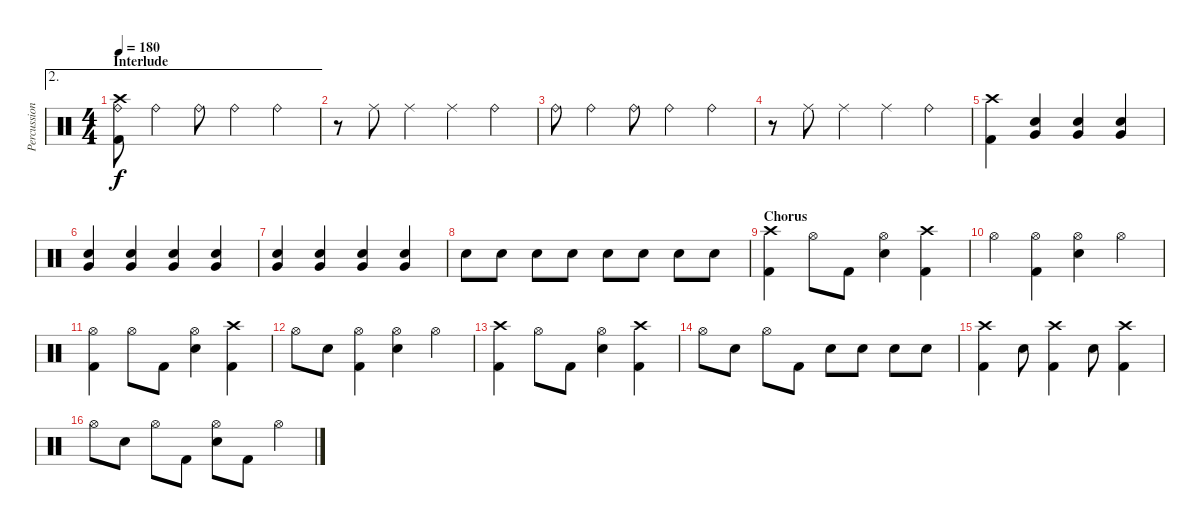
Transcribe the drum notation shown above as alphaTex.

\track ("Percussion" "Percussion") {instrument percussion}
\staff {score}
\articulation defaults
\ae 2
\ts (4 4)
\section ("" "Interlude")
\tempo 180
\clef neutral
\ks c
("Crash high (hit)" "Ride (bell)" "Kick (hit) 2").8{dy f} "Ride (bell)".4 "Ride (bell)".8 "Ride (bell)".4 "Ride (bell)".4 |
r.8 "Ride (middle)".8 "Ride (middle)".4 "Ride (middle)".4 "Ride (bell)".4 |
"Ride (bell)".8 "Ride (bell)".4 "Ride (bell)".8 "Ride (bell)".4 "Ride (bell)".4 |
r.8 "Ride (middle)".8 "Ride (middle)".4 "Ride (middle)".4 "Ride (bell)".4 |
("Crash high (hit)" "Kick (hit) 2").4 ("Very Low Tom (hit)" "Electric Snare (hit)").4 ("Very Low Tom (hit)" "Electric Snare (hit)").4 ("Very Low Tom (hit)" "Electric Snare (hit)").4 |
("Very Low Tom (hit)" "Electric Snare (hit)").4 ("Very Low Tom (hit)" "Electric Snare (hit)").4 ("Very Low Tom (hit)" "Electric Snare (hit)").4 ("Very Low Tom (hit)" "Electric Snare (hit)").4 |
("Very Low Tom (hit)" "Electric Snare (hit)").4 ("Very Low Tom (hit)" "Electric Snare (hit)").4 ("Very Low Tom (hit)" "Electric Snare (hit)").4 ("Very Low Tom (hit)" "Electric Snare (hit)").4 |
"Electric Snare (hit)".8 "Electric Snare (hit)".8 "Electric Snare (hit)".8 "Electric Snare (hit)".8 "Electric Snare (hit)".8 "Electric Snare (hit)".8 "Electric Snare (hit)".8 "Electric Snare (hit)".8 |
\section ("" "Chorus")
("Crash high (hit)" "Kick (hit) 2").4 "Hi-Hat (open)".8 "Kick (hit) 2".8 ("Hi-Hat (open)" "Electric Snare (hit)").4 ("Crash high (hit)" "Kick (hit) 2").4 |
"Hi-Hat (open)".4 ("Hi-Hat (open)" "Kick (hit) 2").4 ("Hi-Hat (open)" "Electric Snare (hit)").4 "Hi-Hat (open)".4 |
("Hi-Hat (open)" "Kick (hit) 2").4 "Hi-Hat (open)".8 "Kick (hit) 2".8 ("Hi-Hat (open)" "Electric Snare (hit)").4 ("Crash high (hit)" "Kick (hit) 2").4 |
"Hi-Hat (open)".8 "Electric Snare (hit)".8 ("Hi-Hat (open)" "Kick (hit) 2").4 ("Hi-Hat (open)" "Electric Snare (hit)").4 "Hi-Hat (open)".4 |
("Crash high (hit)" "Kick (hit) 2").4 "Hi-Hat (open)".8 "Kick (hit) 2".8 ("Hi-Hat (open)" "Electric Snare (hit)").4 ("Crash high (hit)" "Kick (hit) 2").4 |
"Hi-Hat (open)".8 "Electric Snare (hit)".8 "Hi-Hat (open)".8 "Kick (hit) 2".8 "Electric Snare (hit)".8 "Electric Snare (hit)".8 "Electric Snare (hit)".8 "Electric Snare (hit)".8 |
("Crash high (hit)" "Kick (hit) 2").4 "Electric Snare (hit)".8 ("Crash high (hit)" "Kick (hit) 2").4 "Electric Snare (hit)".8 ("Crash high (hit)" "Kick (hit) 2").4 |
"Hi-Hat (open)".8 "Electric Snare (hit)".8 "Hi-Hat (open)".8 "Kick (hit) 2".8 ("Hi-Hat (open)" "Electric Snare (hit)").8 "Kick (hit) 2".8 "Hi-Hat (open)".4
